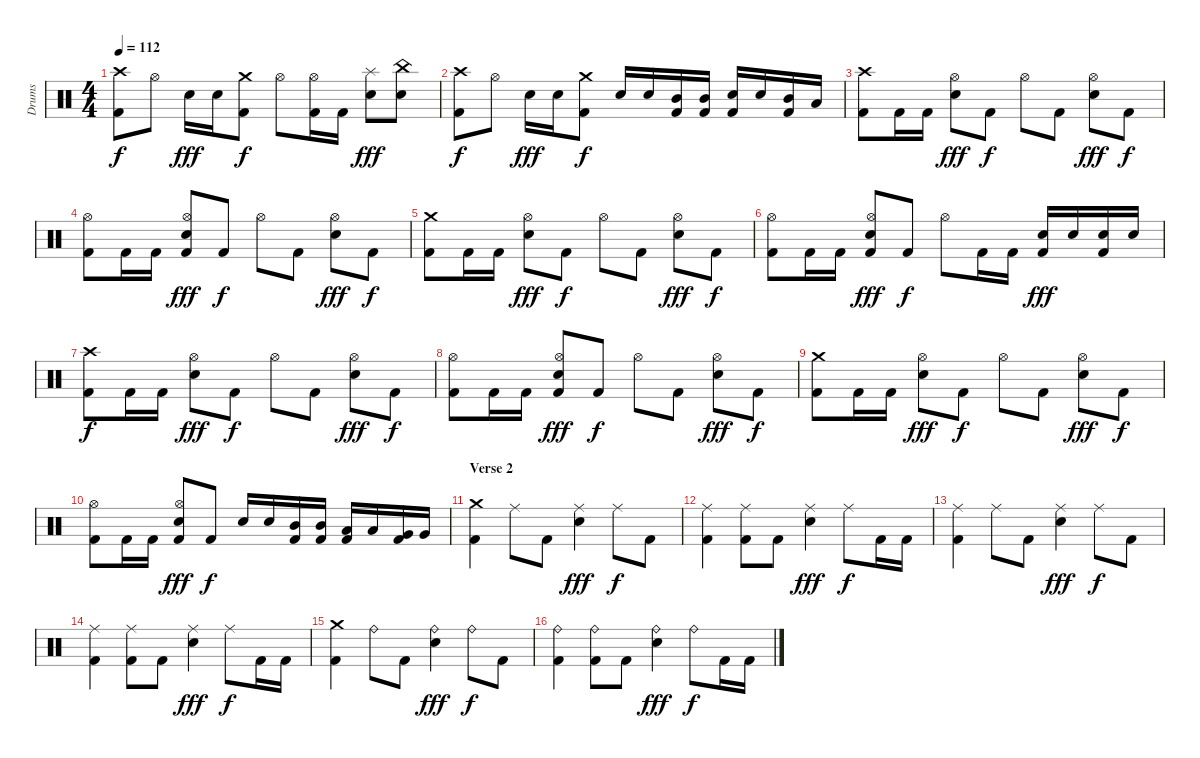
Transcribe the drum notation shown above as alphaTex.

\track ("Drums" "Drums") {instrument percussion}
\staff {score}
\articulation defaults
\ts (4 4)
\tempo 112
\clef neutral
\ks c
("Crash high (hit)" "Kick (hit) 2").8{dy f} "Hi-Hat (open)".8 "Snare (hit) 2".16{dy fff} "Snare (hit) 2".16 ("Crash medium (hit)" "Kick (hit) 2").8{dy f} "Hi-Hat (open)".8 ("Hi-Hat (open)" "Kick (hit) 2").16 "Kick (hit) 2".16 ("Splash (hit)" "Snare (hit) 2").8{dy fff} ("China (hit)" "Snare (hit) 2").8 |
("Crash high (hit)" "Kick (hit) 2").8{dy f} "Hi-Hat (open)".8 "Snare (hit) 2".16{dy fff} "Snare (hit) 2".16 ("Crash medium (hit)" "Kick (hit) 2").8{dy f} "Snare (hit) 2".16 "Snare (hit) 2".16 ("Mid Tom (hit)" "Kick (hit) 2").16 ("Mid Tom (hit)" "Kick (hit) 2").16 ("Snare (hit) 2" "Kick (hit) 2").16 "Snare (hit) 2".16 ("Mid Tom (hit)" "Kick (hit) 2").16 "Low Tom (hit)".16 |
("Crash high (hit)" "Kick (hit) 2").8 "Kick (hit) 2".16 "Kick (hit) 2".16 ("Hi-Hat (open)" "Snare (hit) 2").8{dy fff} "Kick (hit) 2".8{dy f} "Hi-Hat (open)".8 "Kick (hit) 2".8 ("Hi-Hat (open)" "Snare (hit) 2").8{dy fff} "Kick (hit) 2".8{dy f} |
("Hi-Hat (open)" "Kick (hit) 2").8 "Kick (hit) 2".16 "Kick (hit) 2".16 ("Hi-Hat (open)" "Snare (hit) 2" "Kick (hit) 2").8{dy fff} "Kick (hit) 2".8{dy f} "Hi-Hat (open)".8 "Kick (hit) 2".8 ("Hi-Hat (open)" "Snare (hit) 2").8{dy fff} "Kick (hit) 2".8{dy f} |
("Crash medium (hit)" "Kick (hit) 2").8 "Kick (hit) 2".16 "Kick (hit) 2".16 ("Hi-Hat (open)" "Snare (hit) 2").8{dy fff} "Kick (hit) 2".8{dy f} "Hi-Hat (open)".8 "Kick (hit) 2".8 ("Hi-Hat (open)" "Snare (hit) 2").8{dy fff} "Kick (hit) 2".8{dy f} |
("Hi-Hat (open)" "Kick (hit) 2").8 "Kick (hit) 2".16 "Kick (hit) 2".16 ("Hi-Hat (open)" "Snare (hit) 2" "Kick (hit) 2").8{dy fff} "Kick (hit) 2".8{dy f} "Hi-Hat (open)".8 "Kick (hit) 2".16 "Kick (hit) 2".16 ("Snare (hit) 2" "Kick (hit) 2").16{dy fff} "Snare (hit) 2".16 ("Snare (hit) 2" "Kick (hit) 2").16 "Snare (hit) 2".16 |
("Crash high (hit)" "Kick (hit) 2").8{dy f} "Kick (hit) 2".16 "Kick (hit) 2".16 ("Hi-Hat (open)" "Snare (hit) 2").8{dy fff} "Kick (hit) 2".8{dy f} "Hi-Hat (open)".8 "Kick (hit) 2".8 ("Hi-Hat (open)" "Snare (hit) 2").8{dy fff} "Kick (hit) 2".8{dy f} |
("Hi-Hat (open)" "Kick (hit) 2").8 "Kick (hit) 2".16 "Kick (hit) 2".16 ("Hi-Hat (open)" "Snare (hit) 2" "Kick (hit) 2").8{dy fff} "Kick (hit) 2".8{dy f} "Hi-Hat (open)".8 "Kick (hit) 2".8 ("Hi-Hat (open)" "Snare (hit) 2").8{dy fff} "Kick (hit) 2".8{dy f} |
("Crash medium (hit)" "Kick (hit) 2").8 "Kick (hit) 2".16 "Kick (hit) 2".16 ("Hi-Hat (open)" "Snare (hit) 2").8{dy fff} "Kick (hit) 2".8{dy f} "Hi-Hat (open)".8 "Kick (hit) 2".8 ("Hi-Hat (open)" "Snare (hit) 2").8{dy fff} "Kick (hit) 2".8{dy f} |
("Hi-Hat (open)" "Kick (hit) 2").8 "Kick (hit) 2".16 "Kick (hit) 2".16 ("Hi-Hat (open)" "Snare (hit) 2" "Kick (hit) 2").8{dy fff} "Kick (hit) 2".8{dy f} "Snare (hit) 2".16 "Snare (hit) 2".16 ("Mid Tom (hit)" "Kick (hit) 2").16 ("Mid Tom (hit)" "Kick (hit) 2").16 ("Low Tom (hit)" "Kick (hit) 2").16 "Low Tom (hit)".16 ("Very Low Tom (hit)" "Kick (hit) 2").16 "Very Low Tom (hit)".16 |
\section ("" "Verse 2")
("Crash medium (hit)" "Kick (hit) 2").4 "Ride (middle)".8 "Kick (hit) 2".8 ("Ride (middle)" "Snare (hit) 2").4{dy fff} "Ride (middle)".8{dy f} "Kick (hit) 2".8 |
("Ride (middle)" "Kick (hit) 2").4 ("Ride (middle)" "Kick (hit) 2").8 "Kick (hit) 2".8 ("Ride (middle)" "Snare (hit) 2").4{dy fff} "Ride (middle)".8{dy f} "Kick (hit) 2".16 "Kick (hit) 2".16 |
("Ride (middle)" "Kick (hit) 2").4 "Ride (middle)".8 "Kick (hit) 2".8 ("Ride (middle)" "Snare (hit) 2").4{dy fff} "Ride (middle)".8{dy f} "Kick (hit) 2".8 |
("Ride (middle)" "Kick (hit) 2").4 ("Ride (middle)" "Kick (hit) 2").8 "Kick (hit) 2".8 ("Ride (middle)" "Snare (hit) 2").4{dy fff} "Ride (middle)".8{dy f} "Kick (hit) 2".16 "Kick (hit) 2".16 |
("Crash medium (hit)" "Kick (hit) 2").4 "Ride (bell)".8 "Kick (hit) 2".8 ("Ride (bell)" "Snare (hit) 2").4{dy fff} "Ride (bell)".8{dy f} "Kick (hit) 2".8 |
("Ride (bell)" "Kick (hit) 2").4 ("Ride (bell)" "Kick (hit) 2").8 "Kick (hit) 2".8 ("Ride (bell)" "Snare (hit) 2").4{dy fff} "Ride (bell)".8{dy f} "Kick (hit) 2".16 "Kick (hit) 2".16
